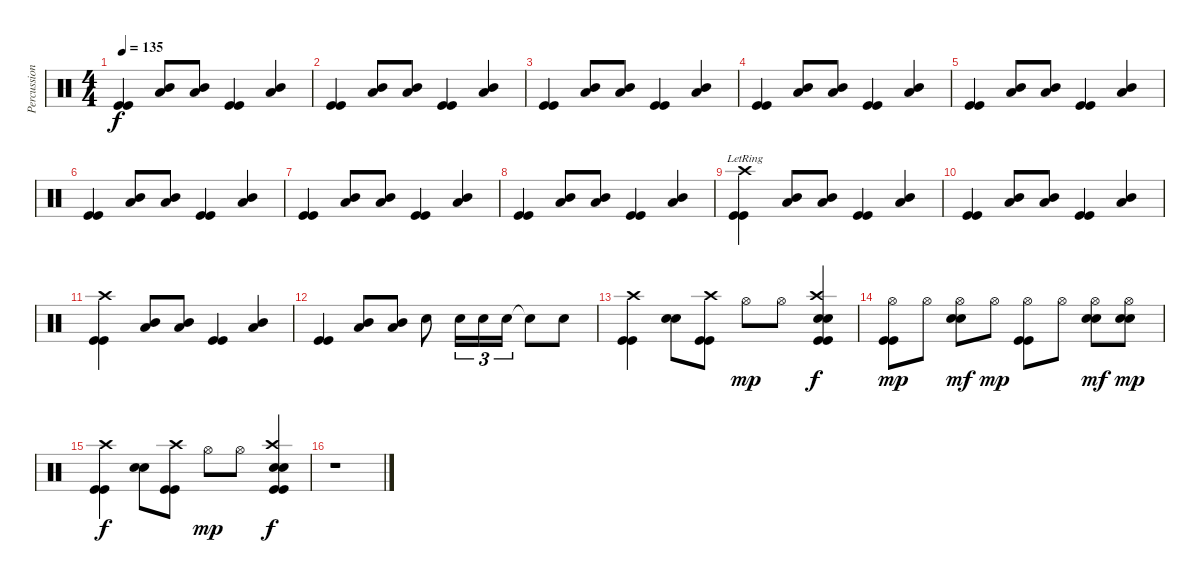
\track ("Percussions" "Percussion") {instrument percussion}
\staff {score}
\articulation defaults
\ts (4 4)
\tempo 135
\clef neutral
\ks c
("Kick (hit)" "Kick (hit)").4{dy f} ("Low Tom (hit)" "Mid Tom (hit)").8 ("Low Tom (hit)" "Mid Tom (hit)").8 ("Kick (hit)" "Kick (hit)").4 ("Low Tom (hit)" "Mid Tom (hit)").4 |
("Kick (hit)" "Kick (hit)").4 ("Low Tom (hit)" "Mid Tom (hit)").8 ("Low Tom (hit)" "Mid Tom (hit)").8 ("Kick (hit)" "Kick (hit)").4 ("Low Tom (hit)" "Mid Tom (hit)").4 |
("Kick (hit)" "Kick (hit)").4 ("Low Tom (hit)" "Mid Tom (hit)").8 ("Low Tom (hit)" "Mid Tom (hit)").8 ("Kick (hit)" "Kick (hit)").4 ("Low Tom (hit)" "Mid Tom (hit)").4 |
("Kick (hit)" "Kick (hit)").4 ("Low Tom (hit)" "Mid Tom (hit)").8 ("Low Tom (hit)" "Mid Tom (hit)").8 ("Kick (hit)" "Kick (hit)").4 ("Low Tom (hit)" "Mid Tom (hit)").4 |
("Kick (hit)" "Kick (hit)").4 ("Low Tom (hit)" "Mid Tom (hit)").8 ("Low Tom (hit)" "Mid Tom (hit)").8 ("Kick (hit)" "Kick (hit)").4 ("Low Tom (hit)" "Mid Tom (hit)").4 |
("Kick (hit)" "Kick (hit)").4 ("Low Tom (hit)" "Mid Tom (hit)").8 ("Low Tom (hit)" "Mid Tom (hit)").8 ("Kick (hit)" "Kick (hit)").4 ("Low Tom (hit)" "Mid Tom (hit)").4 |
("Kick (hit)" "Kick (hit)").4 ("Low Tom (hit)" "Mid Tom (hit)").8 ("Low Tom (hit)" "Mid Tom (hit)").8 ("Kick (hit)" "Kick (hit)").4 ("Low Tom (hit)" "Mid Tom (hit)").4 |
("Kick (hit)" "Kick (hit)").4 ("Low Tom (hit)" "Mid Tom (hit)").8 ("Low Tom (hit)" "Mid Tom (hit)").8 ("Kick (hit)" "Kick (hit)").4 ("Low Tom (hit)" "Mid Tom (hit)").4 |
("Crash high (hit)"{lr} "Kick (hit)" "Kick (hit)").4 ("Low Tom (hit)" "Mid Tom (hit)").8 ("Low Tom (hit)" "Mid Tom (hit)").8 ("Kick (hit)" "Kick (hit)").4 ("Low Tom (hit)" "Mid Tom (hit)").4 |
("Kick (hit)" "Kick (hit)").4 ("Low Tom (hit)" "Mid Tom (hit)").8 ("Low Tom (hit)" "Mid Tom (hit)").8 ("Kick (hit)" "Kick (hit)").4 ("Low Tom (hit)" "Mid Tom (hit)").4 |
("Crash high (hit)" "Kick (hit)" "Kick (hit)").4 ("Low Tom (hit)" "Mid Tom (hit)").8 ("Low Tom (hit)" "Mid Tom (hit)").8 ("Kick (hit)" "Kick (hit)").4 ("Low Tom (hit)" "Mid Tom (hit)").4 |
("Kick (hit)" "Kick (hit)").4 ("Low Tom (hit)" "Mid Tom (hit)").8 ("Low Tom (hit)" "Mid Tom (hit)").8 "Snare (hit) 2".8 "Snare (hit) 2".16{tu (3 2)} "Snare (hit) 2".16{tu (3 2)} "Snare (hit) 2".16{tu (3 2)} "Snare (hit)"{t}.8 "Snare (hit) 2".8 |
("Crash high (hit)" "Kick (hit)" "Kick (hit)").4 ("Snare (hit) 2" "Snare (hit) 2").8 ("Crash high (hit)" "Kick (hit)" "Kick (hit)").8 "Hi-Hat (open)".8{dy mp} "Hi-Hat (open)".8 ("Crash high (hit)" "Snare (hit) 2" "Snare (hit) 2" "Kick (hit)" "Kick (hit)").4{dy f} |
("Hi-Hat (open)" "Kick (hit)" "Kick (hit)").8{dy mp} "Hi-Hat (open)".8 ("Hi-Hat (open)" "Snare (hit) 2" "Snare (hit) 2").8{dy mf} "Hi-Hat (open)".8{dy mp} ("Hi-Hat (open)" "Kick (hit)" "Kick (hit)").8 "Hi-Hat (open)".8 ("Hi-Hat (open)" "Snare (hit) 2" "Snare (hit) 2").8{dy mf} ("Hi-Hat (open)" "Snare (hit) 2" "Snare (hit) 2").8{dy mp} |
("Crash high (hit)" "Kick (hit)" "Kick (hit)").4{dy f} ("Snare (hit) 2" "Snare (hit) 2").8 ("Crash high (hit)" "Kick (hit)" "Kick (hit)").8 "Hi-Hat (open)".8{dy mp} "Hi-Hat (open)".8 ("Crash high (hit)" "Snare (hit) 2" "Snare (hit) 2" "Kick (hit)" "Kick (hit)").4{dy f} |
r.1
